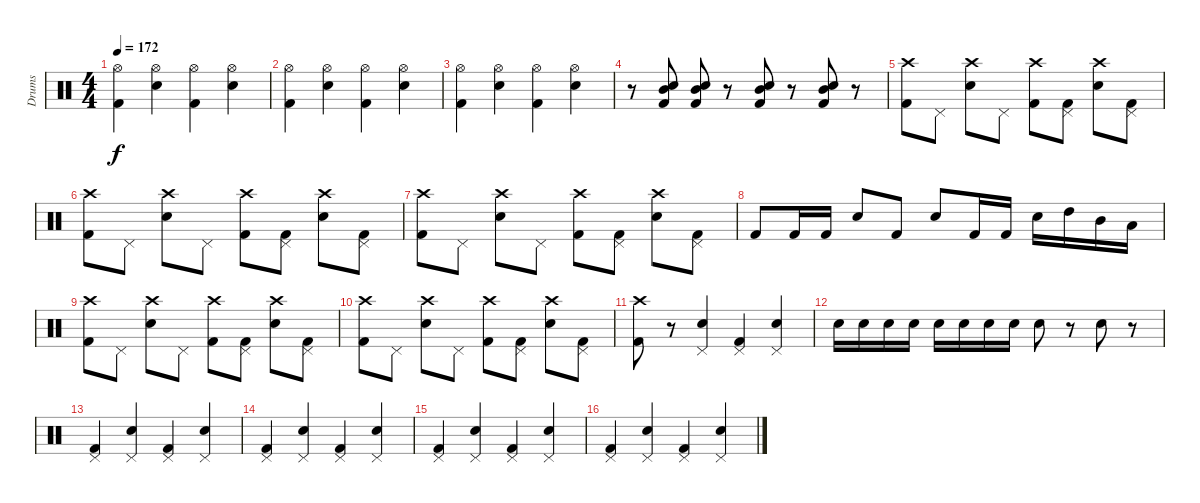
\track ("Drums" "Drums") {instrument percussion}
\staff {score}
\articulation defaults
\ts (4 4)
\tempo 172
\clef neutral
\ks c
("Hi-Hat (open)" "Kick (hit) 2").4{dy f} ("Hi-Hat (open)" "Snare (hit) 2").4 ("Hi-Hat (open)" "Kick (hit) 2").4 ("Hi-Hat (open)" "Snare (hit) 2").4 |
("Hi-Hat (open)" "Kick (hit) 2").4 ("Hi-Hat (open)" "Snare (hit) 2").4 ("Hi-Hat (open)" "Kick (hit) 2").4 ("Hi-Hat (open)" "Snare (hit) 2").4 |
("Hi-Hat (open)" "Kick (hit) 2").4 ("Hi-Hat (open)" "Snare (hit) 2").4 ("Hi-Hat (open)" "Kick (hit) 2").4 ("Hi-Hat (open)" "Snare (hit) 2").4 |
r.8 ("Mid Tom (hit)" "Snare (hit) 2" "Kick (hit) 2").8 ("Mid Tom (hit)" "Snare (hit) 2" "Kick (hit) 2").8 r.8 ("Mid Tom (hit)" "Snare (hit) 2" "Kick (hit) 2").8 r.8 ("Mid Tom (hit)" "Snare (hit) 2" "Kick (hit) 2").8 r.8 |
("Crash high (hit)" "Kick (hit) 2").8 "Pedal Hi-Hat (hit)".8 ("Crash high (hit)" "Snare (hit) 2").8 "Pedal Hi-Hat (hit)".8 ("Crash high (hit)" "Kick (hit) 2").8 ("Pedal Hi-Hat (hit)" "Kick (hit) 2").8 ("Crash high (hit)" "Snare (hit) 2").8 ("Pedal Hi-Hat (hit)" "Kick (hit) 2").8 |
("Crash high (hit)" "Kick (hit) 2").8 "Pedal Hi-Hat (hit)".8 ("Crash high (hit)" "Snare (hit) 2").8 "Pedal Hi-Hat (hit)".8 ("Crash high (hit)" "Kick (hit) 2").8 ("Pedal Hi-Hat (hit)" "Kick (hit) 2").8 ("Crash high (hit)" "Snare (hit) 2").8 ("Pedal Hi-Hat (hit)" "Kick (hit) 2").8 |
("Crash high (hit)" "Kick (hit) 2").8 "Pedal Hi-Hat (hit)".8 ("Crash high (hit)" "Snare (hit) 2").8 "Pedal Hi-Hat (hit)".8 ("Crash high (hit)" "Kick (hit) 2").8 ("Pedal Hi-Hat (hit)" "Kick (hit) 2").8 ("Crash high (hit)" "Snare (hit) 2").8 ("Pedal Hi-Hat (hit)" "Kick (hit) 2").8 |
"Kick (hit) 2".8 "Kick (hit) 2".16 "Kick (hit) 2".16 "Snare (hit) 2".8 "Kick (hit) 2".8 "Snare (hit) 2".8 "Kick (hit) 2".16 "Kick (hit) 2".16 "Snare (hit) 2".16 "High Tom (hit)".16 "Mid Tom (hit)".16 "Low Tom (hit)".16 |
("Crash high (hit)" "Kick (hit) 2").8 "Pedal Hi-Hat (hit)".8 ("Crash high (hit)" "Snare (hit) 2").8 "Pedal Hi-Hat (hit)".8 ("Crash high (hit)" "Kick (hit) 2").8 ("Pedal Hi-Hat (hit)" "Kick (hit) 2").8 ("Crash high (hit)" "Snare (hit) 2").8 ("Pedal Hi-Hat (hit)" "Kick (hit) 2").8 |
("Crash high (hit)" "Kick (hit) 2").8 "Pedal Hi-Hat (hit)".8 ("Crash high (hit)" "Snare (hit) 2").8 "Pedal Hi-Hat (hit)".8 ("Crash high (hit)" "Kick (hit) 2").8 ("Pedal Hi-Hat (hit)" "Kick (hit) 2").8 ("Crash high (hit)" "Snare (hit) 2").8 ("Pedal Hi-Hat (hit)" "Kick (hit) 2").8 |
("Crash high (hit)" "Kick (hit) 2").8 r.8 ("Pedal Hi-Hat (hit)" "Snare (hit) 2").4 ("Pedal Hi-Hat (hit)" "Kick (hit) 2").4 ("Pedal Hi-Hat (hit)" "Snare (hit) 2").4 |
"Snare (hit) 2".16 "Snare (hit) 2".16 "Snare (hit) 2".16 "Snare (hit) 2".16 "Snare (hit) 2".16 "Snare (hit) 2".16 "Snare (hit) 2".16 "Snare (hit) 2".16 "Snare (hit) 2".8 r.8 "Snare (hit) 2".8 r.8 |
("Pedal Hi-Hat (hit)" "Kick (hit) 2").4 ("Pedal Hi-Hat (hit)" "Snare (hit) 2").4 ("Pedal Hi-Hat (hit)" "Kick (hit) 2").4 ("Pedal Hi-Hat (hit)" "Snare (hit) 2").4 |
("Pedal Hi-Hat (hit)" "Kick (hit) 2").4 ("Pedal Hi-Hat (hit)" "Snare (hit) 2").4 ("Pedal Hi-Hat (hit)" "Kick (hit) 2").4 ("Pedal Hi-Hat (hit)" "Snare (hit) 2").4 |
("Pedal Hi-Hat (hit)" "Kick (hit) 2").4 ("Pedal Hi-Hat (hit)" "Snare (hit) 2").4 ("Pedal Hi-Hat (hit)" "Kick (hit) 2").4 ("Pedal Hi-Hat (hit)" "Snare (hit) 2").4 |
("Pedal Hi-Hat (hit)" "Kick (hit) 2").4 ("Pedal Hi-Hat (hit)" "Snare (hit) 2").4 ("Pedal Hi-Hat (hit)" "Kick (hit) 2").4 ("Pedal Hi-Hat (hit)" "Snare (hit) 2").4
